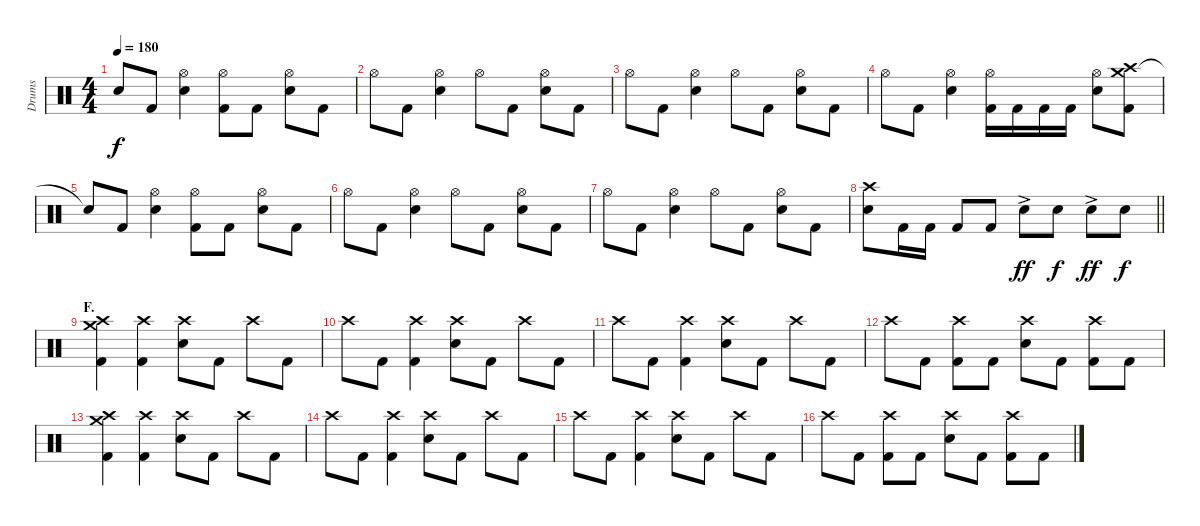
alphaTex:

\track ("Drums" "Drums") {instrument percussion}
\staff {score}
\articulation defaults
\ts (4 4)
\tempo 180
\clef neutral
\ks c "Snare (hit)"{t}.8{dy f} "Kick (hit) 2".8
("Hi-Hat (open)" "Electric Snare (hit)").4 ("Hi-Hat (open)" "Kick (hit) 2").8 "Kick (hit) 2".8 ("Hi-Hat (open)" "Electric Snare (hit)").8 "Kick (hit) 2".8 |
"Hi-Hat (open)".8 "Kick (hit) 2".8 ("Hi-Hat (open)" "Electric Snare (hit)").4 "Hi-Hat (open)".8 "Kick (hit) 2".8 ("Hi-Hat (open)" "Electric Snare (hit)").8 "Kick (hit) 2".8 |
"Hi-Hat (open)".8 "Kick (hit) 2".8 ("Hi-Hat (open)" "Electric Snare (hit)").4 "Hi-Hat (open)".8 "Kick (hit) 2".8 ("Hi-Hat (open)" "Electric Snare (hit)").8 "Kick (hit) 2".8 |
"Hi-Hat (open)".8 "Kick (hit) 2".8 ("Hi-Hat (open)" "Electric Snare (hit)").4 ("Hi-Hat (open)" "Kick (hit) 2").16 "Kick (hit) 2".16 "Kick (hit) 2".16 "Kick (hit) 2".16 ("Hi-Hat (open)" "Electric Snare (hit)").8 ("Crash medium (hit)" "Crash high (hit)" "Kick (hit) 2").8 |
"Snare (hit)"{t}.8 "Kick (hit) 2".8 ("Hi-Hat (open)" "Electric Snare (hit)").4 ("Hi-Hat (open)" "Kick (hit) 2").8 "Kick (hit) 2".8 ("Hi-Hat (open)" "Electric Snare (hit)").8 "Kick (hit) 2".8 |
"Hi-Hat (open)".8 "Kick (hit) 2".8 ("Hi-Hat (open)" "Electric Snare (hit)").4 "Hi-Hat (open)".8 "Kick (hit) 2".8 ("Hi-Hat (open)" "Electric Snare (hit)").8 "Kick (hit) 2".8 |
"Hi-Hat (open)".8 "Kick (hit) 2".8 ("Hi-Hat (open)" "Electric Snare (hit)").4 "Hi-Hat (open)".8 "Kick (hit) 2".8 ("Hi-Hat (open)" "Electric Snare (hit)").8 "Kick (hit) 2".8 |
\barLineRight lightlight
("Crash high (hit)" "Electric Snare (hit)").8 "Kick (hit) 2".16 "Kick (hit) 2".16 "Kick (hit) 2".8 "Kick (hit) 2".8 "Electric Snare (hit)"{ac}.8{dy ff} "Electric Snare (hit)".8{dy f} "Electric Snare (hit)"{ac}.8{dy ff} "Electric Snare (hit)".8{dy f} |
\section ("" "F.")
("Crash medium (hit)" "Crash high (hit)" "Kick (hit) 2").4 ("Crash high (hit)" "Kick (hit) 2").4 ("Crash high (hit)" "Electric Snare (hit)").8 "Kick (hit) 2".8 "Crash high (hit)".8 "Kick (hit) 2".8 |
"Crash high (hit)".8 "Kick (hit) 2".8 ("Crash high (hit)" "Kick (hit) 2").4 ("Crash high (hit)" "Electric Snare (hit)").8 "Kick (hit) 2".8 "Crash high (hit)".8 "Kick (hit) 2".8 |
"Crash high (hit)".8 "Kick (hit) 2".8 ("Crash high (hit)" "Kick (hit) 2").4 ("Crash high (hit)" "Electric Snare (hit)").8 "Kick (hit) 2".8 "Crash high (hit)".8 "Kick (hit) 2".8 |
"Crash high (hit)".8 "Kick (hit) 2".8 ("Crash high (hit)" "Kick (hit) 2").8 "Kick (hit) 2".8 ("Crash high (hit)" "Electric Snare (hit)").8 "Kick (hit) 2".8 ("Crash high (hit)" "Kick (hit) 2").8 "Kick (hit) 2".8 |
("Crash medium (hit)" "Crash high (hit)" "Kick (hit) 2").4 ("Crash high (hit)" "Kick (hit) 2").4 ("Crash high (hit)" "Electric Snare (hit)").8 "Kick (hit) 2".8 "Crash high (hit)".8 "Kick (hit) 2".8 |
"Crash high (hit)".8 "Kick (hit) 2".8 ("Crash high (hit)" "Kick (hit) 2").4 ("Crash high (hit)" "Electric Snare (hit)").8 "Kick (hit) 2".8 "Crash high (hit)".8 "Kick (hit) 2".8 |
"Crash high (hit)".8 "Kick (hit) 2".8 ("Crash high (hit)" "Kick (hit) 2").4 ("Crash high (hit)" "Electric Snare (hit)").8 "Kick (hit) 2".8 "Crash high (hit)".8 "Kick (hit) 2".8 |
"Crash high (hit)".8 "Kick (hit) 2".8 ("Crash high (hit)" "Kick (hit) 2").8 "Kick (hit) 2".8 ("Crash high (hit)" "Electric Snare (hit)").8 "Kick (hit) 2".8 ("Crash high (hit)" "Kick (hit) 2").8 "Kick (hit) 2".8
